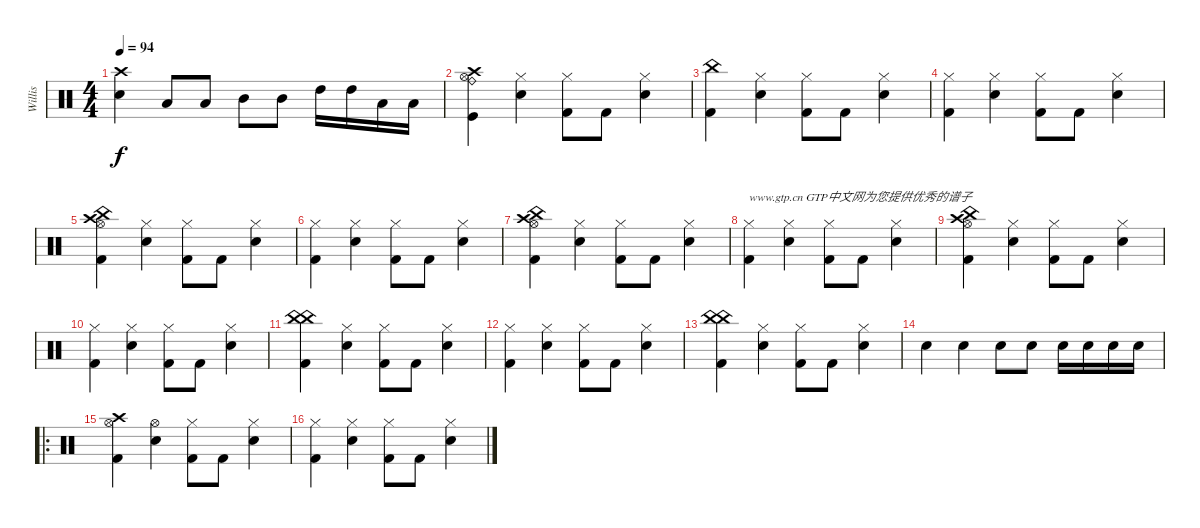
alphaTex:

\track ("Willis" "Willis") {instrument percussion}
\staff {score}
\articulation defaults
\ts (4 4)
\tempo 94
\clef neutral
\ks c
("Snare (hit) 2" "Crash high (hit)").4{dy f} "Low Tom (hit)".8 "Low Tom (hit)".8 "Mid Tom (hit)".8 "Mid Tom (hit)".8 "High Tom (hit)".16 "High Tom (hit)".16 "Low Floor Tom (hit)".16 "Low Floor Tom (hit)".16 |
("Kick (hit)" "Ride (bell)" "Hi-Hat (open)" "Crash high (hit)").4 ("Electric Snare (hit)" "Hi-Hat (closed)").4 ("Kick (hit) 2" "Hi-Hat (closed)").8 "Kick (hit) 2".8 ("Electric Snare (hit)" "Hi-Hat (closed)").4 |
("Kick (hit) 2" "China (hit)").4 ("Electric Snare (hit)" "Hi-Hat (closed)").4 ("Kick (hit) 2" "Hi-Hat (closed)").8 "Kick (hit) 2".8 ("Electric Snare (hit)" "Hi-Hat (closed)").4 |
("Kick (hit) 2" "Hi-Hat (closed)").4 ("Electric Snare (hit)" "Hi-Hat (closed)").4 ("Kick (hit) 2" "Hi-Hat (closed)").8 "Kick (hit) 2".8 ("Electric Snare (hit)" "Hi-Hat (closed)").4 |
("Kick (hit) 2" "Hi-Hat (open)" "China (hit)" "Crash high (hit)").4 ("Electric Snare (hit)" "Hi-Hat (closed)").4 ("Kick (hit) 2" "Hi-Hat (closed)").8 "Kick (hit) 2".8 ("Electric Snare (hit)" "Hi-Hat (closed)").4 |
("Kick (hit) 2" "Hi-Hat (closed)").4 ("Electric Snare (hit)" "Hi-Hat (closed)").4 ("Kick (hit) 2" "Hi-Hat (closed)").8 "Kick (hit) 2".8 ("Electric Snare (hit)" "Hi-Hat (closed)").4 |
("Kick (hit) 2" "China (hit)" "Crash high (hit)" "Hi-Hat (open)").4 ("Electric Snare (hit)" "Hi-Hat (closed)").4 ("Kick (hit) 2" "Hi-Hat (closed)").8 "Kick (hit) 2".8 ("Electric Snare (hit)" "Hi-Hat (closed)").4 |
("Kick (hit) 2" "Hi-Hat (closed)").4{txt "www.gtp.cn GTP中文网为您提供优秀的谱子"} ("Electric Snare (hit)" "Hi-Hat (closed)").4 ("Kick (hit) 2" "Hi-Hat (closed)").8 "Kick (hit) 2".8 ("Electric Snare (hit)" "Hi-Hat (closed)").4 |
("Kick (hit) 2" "Crash high (hit)" "Hi-Hat (open)" "China (hit)").4 ("Electric Snare (hit)" "Hi-Hat (closed)").4 ("Kick (hit) 2" "Hi-Hat (closed)").8 "Kick (hit) 2".8 ("Electric Snare (hit)" "Hi-Hat (closed)").4 |
("Kick (hit) 2" "Hi-Hat (closed)").4 ("Electric Snare (hit)" "Hi-Hat (closed)").4 ("Kick (hit) 2" "Hi-Hat (closed)").8 "Kick (hit) 2".8 ("Electric Snare (hit)" "Hi-Hat (closed)").4 |
("Kick (hit) 2" "China (hit)" "China (hit)").4 ("Electric Snare (hit)" "Hi-Hat (closed)").4 ("Kick (hit) 2" "Hi-Hat (closed)").8 "Kick (hit) 2".8 ("Electric Snare (hit)" "Hi-Hat (closed)").4 |
("Kick (hit) 2" "Hi-Hat (closed)").4 ("Electric Snare (hit)" "Hi-Hat (closed)").4 ("Kick (hit) 2" "Hi-Hat (closed)").8 "Kick (hit) 2".8 ("Electric Snare (hit)" "Hi-Hat (closed)").4 |
("Kick (hit) 2" "China (hit)" "China (hit)").4 ("Electric Snare (hit)" "Hi-Hat (closed)").4 ("Kick (hit) 2" "Hi-Hat (closed)").8 "Kick (hit) 2".8 ("Electric Snare (hit)" "Hi-Hat (closed)").4 |
"Snare (hit) 2".4 "Snare (hit) 2".4 "Snare (hit) 2".8 "Snare (hit) 2".8 "Snare (hit) 2".16 "Snare (hit) 2".16 "Snare (hit) 2".16 "Snare (hit) 2".16 |
\ro
("Kick (hit) 2" "Hi-Hat (open)" "Crash high (hit)").4 ("Electric Snare (hit)" "Hi-Hat (open)").4 ("Kick (hit) 2" "Hi-Hat (closed)").8 "Kick (hit) 2".8 ("Electric Snare (hit)" "Hi-Hat (closed)").4 |
("Kick (hit) 2" "Hi-Hat (closed)").4 ("Electric Snare (hit)" "Hi-Hat (closed)").4 ("Kick (hit) 2" "Hi-Hat (closed)").8 "Kick (hit) 2".8 ("Electric Snare (hit)" "Hi-Hat (closed)").4
